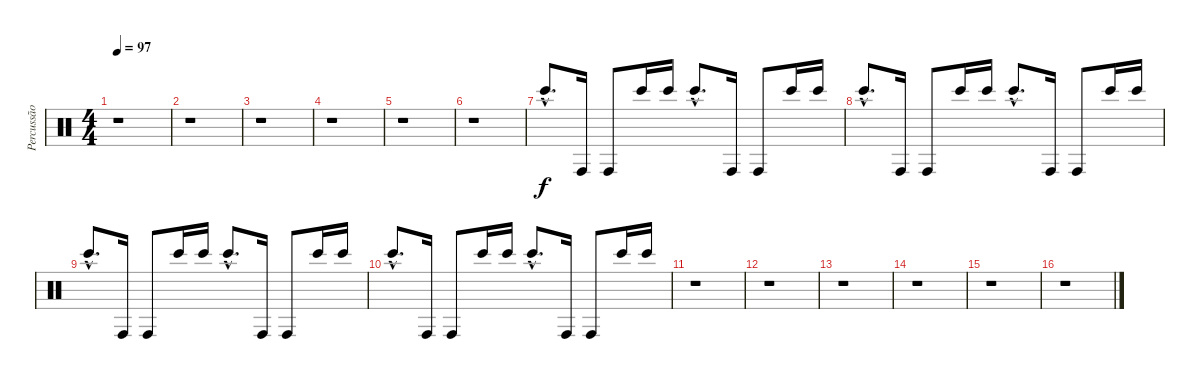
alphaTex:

\track ("Percussão" "Percussão") {instrument percussion}
\staff {score}
\articulation defaults
\ts (4 4)
\tempo 97
\clef neutral
\ks c
r.1{dy f} |
r.1 |
r.1 |
r.1 |
r.1 |
r.1 |
"Bongo High (hit)"{hac}.8{d} "Conga high (hit)".16 "Conga high (hit)".8 "Bongo High (hit)".16 "Bongo High (hit)".16 "Bongo High (hit)"{hac}.8{d} "Conga high (hit)".16 "Conga high (hit)".8 "Bongo High (hit)".16 "Bongo High (hit)".16 |
"Bongo High (hit)"{hac}.8{d} "Conga high (hit)".16 "Conga high (hit)".8 "Bongo High (hit)".16 "Bongo High (hit)".16 "Bongo High (hit)"{hac}.8{d} "Conga high (hit)".16 "Conga high (hit)".8 "Bongo High (hit)".16 "Bongo High (hit)".16 |
"Bongo High (hit)"{hac}.8{d} "Conga high (hit)".16 "Conga high (hit)".8 "Bongo High (hit)".16 "Bongo High (hit)".16 "Bongo High (hit)"{hac}.8{d} "Conga high (hit)".16 "Conga high (hit)".8 "Bongo High (hit)".16 "Bongo High (hit)".16 |
"Bongo High (hit)"{hac}.8{d} "Conga high (hit)".16 "Conga high (hit)".8 "Bongo High (hit)".16 "Bongo High (hit)".16 "Bongo High (hit)"{hac}.8{d} "Conga high (hit)".16 "Conga high (hit)".8 "Bongo High (hit)".16 "Bongo High (hit)".16 |
r.1 |
r.1 |
r.1 |
r.1 |
r.1 |
r.1
